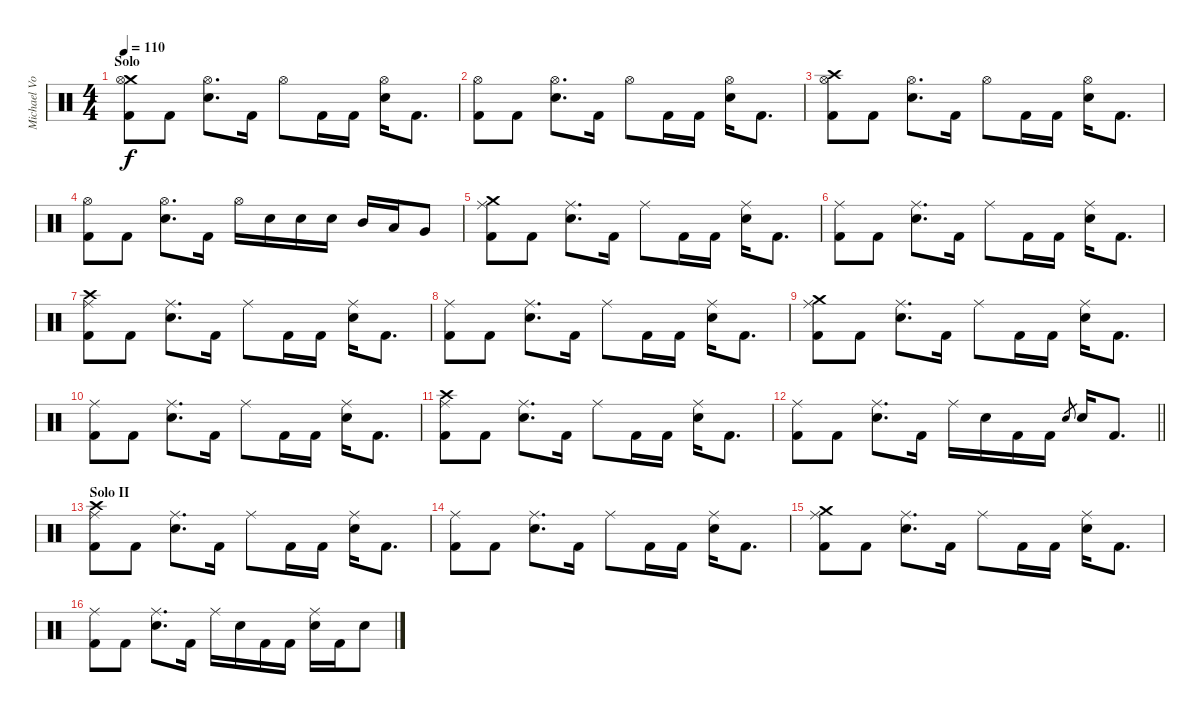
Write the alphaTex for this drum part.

\track ("Michael Von Knorring" "Michael Vo") {instrument percussion}
\staff {score}
\articulation defaults
\ts (4 4)
\section ("" "Solo")
\tempo 110
\clef neutral
\ks c
("Crash medium (hit)" "Hi-Hat (open)" "Kick (hit) 2").8{dy f} "Kick (hit) 2".8 ("Hi-Hat (open)" "Snare (hit) 2").8{d} "Kick (hit) 2".16 "Hi-Hat (open)".8 "Kick (hit) 2".16 "Kick (hit) 2".16 ("Hi-Hat (open)" "Snare (hit) 2").16 "Kick (hit) 2".8{d} |
("Hi-Hat (open)" "Kick (hit) 2").8 "Kick (hit) 2".8 ("Hi-Hat (open)" "Snare (hit) 2").8{d} "Kick (hit) 2".16 "Hi-Hat (open)".8 "Kick (hit) 2".16 "Kick (hit) 2".16 ("Hi-Hat (open)" "Snare (hit) 2").16 "Kick (hit) 2".8{d} |
("Crash high (hit)" "Hi-Hat (open)" "Kick (hit) 2").8 "Kick (hit) 2".8 ("Hi-Hat (open)" "Snare (hit) 2").8{d} "Kick (hit) 2".16 "Hi-Hat (open)".8 "Kick (hit) 2".16 "Kick (hit) 2".16 ("Hi-Hat (open)" "Snare (hit) 2").16 "Kick (hit) 2".8{d} |
("Hi-Hat (open)" "Kick (hit) 2").8 "Kick (hit) 2".8 ("Hi-Hat (open)" "Snare (hit) 2").8{d} "Kick (hit) 2".16 "Hi-Hat (open)".16 "Snare (hit) 2".16 "Snare (hit) 2".16 "Snare (hit) 2".16 "Mid Tom (hit)".16 "Low Tom (hit)".16 "Very Low Tom (hit)".8 |
("Crash medium (hit)" "Ride (middle)" "Kick (hit) 2").8 "Kick (hit) 2".8 ("Ride (middle)" "Snare (hit) 2").8{d} "Kick (hit) 2".16 "Ride (middle)".8 "Kick (hit) 2".16 "Kick (hit) 2".16 ("Ride (middle)" "Snare (hit) 2").16 "Kick (hit) 2".8{d} |
("Ride (middle)" "Kick (hit) 2").8 "Kick (hit) 2".8 ("Ride (middle)" "Snare (hit) 2").8{d} "Kick (hit) 2".16 "Ride (middle)".8 "Kick (hit) 2".16 "Kick (hit) 2".16 ("Ride (middle)" "Snare (hit) 2").16 "Kick (hit) 2".8{d} |
("Crash high (hit)" "Ride (middle)" "Kick (hit) 2").8 "Kick (hit) 2".8 ("Ride (middle)" "Snare (hit) 2").8{d} "Kick (hit) 2".16 "Ride (middle)".8 "Kick (hit) 2".16 "Kick (hit) 2".16 ("Ride (middle)" "Snare (hit) 2").16 "Kick (hit) 2".8{d} |
("Ride (middle)" "Kick (hit) 2").8 "Kick (hit) 2".8 ("Ride (middle)" "Snare (hit) 2").8{d} "Kick (hit) 2".16 "Ride (middle)".8 "Kick (hit) 2".16 "Kick (hit) 2".16 ("Ride (middle)" "Snare (hit) 2").16 "Kick (hit) 2".8{d} |
("Crash medium (hit)" "Ride (middle)" "Kick (hit) 2").8 "Kick (hit) 2".8 ("Ride (middle)" "Snare (hit) 2").8{d} "Kick (hit) 2".16 "Ride (middle)".8 "Kick (hit) 2".16 "Kick (hit) 2".16 ("Ride (middle)" "Snare (hit) 2").16 "Kick (hit) 2".8{d} |
("Ride (middle)" "Kick (hit) 2").8 "Kick (hit) 2".8 ("Ride (middle)" "Snare (hit) 2").8{d} "Kick (hit) 2".16 "Ride (middle)".8 "Kick (hit) 2".16 "Kick (hit) 2".16 ("Ride (middle)" "Snare (hit) 2").16 "Kick (hit) 2".8{d} |
("Crash high (hit)" "Ride (middle)" "Kick (hit) 2").8 "Kick (hit) 2".8 ("Ride (middle)" "Snare (hit) 2").8{d} "Kick (hit) 2".16 "Ride (middle)".8 "Kick (hit) 2".16 "Kick (hit) 2".16 ("Ride (middle)" "Snare (hit) 2").16 "Kick (hit) 2".8{d} |
\barLineRight lightlight
("Ride (middle)" "Kick (hit) 2").8 "Kick (hit) 2".8 ("Ride (middle)" "Snare (hit) 2").8{d} "Kick (hit) 2".16 "Ride (middle)".16 "Snare (hit) 2".16 "Kick (hit) 2".16 "Kick (hit) 2".16 "Snare (hit) 2".8{gr} "Snare (hit) 2".16 "Kick (hit) 2".8{d} |
\section ("" "Solo II")
("Crash high (hit)" "Ride (middle)" "Kick (hit) 2").8 "Kick (hit) 2".8 ("Ride (middle)" "Snare (hit) 2").8{d} "Kick (hit) 2".16 "Ride (middle)".8 "Kick (hit) 2".16 "Kick (hit) 2".16 ("Ride (middle)" "Snare (hit) 2").16 "Kick (hit) 2".8{d} |
("Ride (middle)" "Kick (hit) 2").8 "Kick (hit) 2".8 ("Ride (middle)" "Snare (hit) 2").8{d} "Kick (hit) 2".16 "Ride (middle)".8 "Kick (hit) 2".16 "Kick (hit) 2".16 ("Ride (middle)" "Snare (hit) 2").16 "Kick (hit) 2".8{d} |
("Crash medium (hit)" "Ride (middle)" "Kick (hit) 2").8 "Kick (hit) 2".8 ("Ride (middle)" "Snare (hit) 2").8{d} "Kick (hit) 2".16 "Ride (middle)".8 "Kick (hit) 2".16 "Kick (hit) 2".16 ("Ride (middle)" "Snare (hit) 2").16 "Kick (hit) 2".8{d} |
("Ride (middle)" "Kick (hit) 2").8 "Kick (hit) 2".8 ("Ride (middle)" "Snare (hit) 2").8{d} "Kick (hit) 2".16 "Ride (middle)".16 "Snare (hit) 2".16 "Kick (hit) 2".16 "Kick (hit) 2".16 ("Ride (middle)" "Snare (hit) 2").16 "Kick (hit) 2".16 "Snare (hit) 2".8
